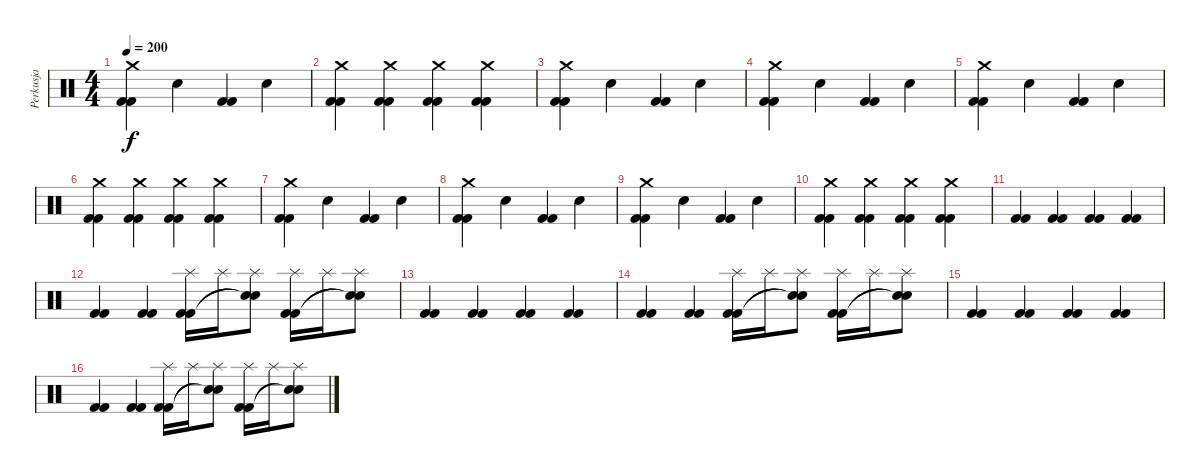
\track ("Perkusja" "Perkusja") {instrument percussion}
\staff {score}
\articulation defaults
\ts (4 4)
\tempo 200
\clef neutral
\ks c
("Crash medium (hit)" "Kick (hit) 2" "Kick (hit) 2").4{dy f} "Snare (hit) 2".4 ("Kick (hit) 2" "Kick (hit) 2").4 "Snare (hit) 2".4 |
("Crash medium (hit)" "Kick (hit) 2" "Kick (hit) 2").4 ("Crash medium (hit)" "Kick (hit) 2" "Kick (hit) 2").4 ("Crash medium (hit)" "Kick (hit) 2" "Kick (hit) 2").4 ("Crash medium (hit)" "Kick (hit) 2" "Kick (hit) 2").4 |
("Crash medium (hit)" "Kick (hit) 2" "Kick (hit) 2").4 "Snare (hit) 2".4 ("Kick (hit) 2" "Kick (hit) 2").4 "Snare (hit) 2".4 |
("Crash medium (hit)" "Kick (hit) 2" "Kick (hit) 2").4 "Snare (hit) 2".4 ("Kick (hit) 2" "Kick (hit) 2").4 "Snare (hit) 2".4 |
("Crash medium (hit)" "Kick (hit) 2" "Kick (hit) 2").4 "Snare (hit) 2".4 ("Kick (hit) 2" "Kick (hit) 2").4 "Snare (hit) 2".4 |
("Crash medium (hit)" "Kick (hit) 2" "Kick (hit) 2").4 ("Crash medium (hit)" "Kick (hit) 2" "Kick (hit) 2").4 ("Crash medium (hit)" "Kick (hit) 2" "Kick (hit) 2").4 ("Crash medium (hit)" "Kick (hit) 2" "Kick (hit) 2").4 |
("Crash medium (hit)" "Kick (hit) 2" "Kick (hit) 2").4 "Snare (hit) 2".4 ("Kick (hit) 2" "Kick (hit) 2").4 "Snare (hit) 2".4 |
("Crash medium (hit)" "Kick (hit) 2" "Kick (hit) 2").4 "Snare (hit) 2".4 ("Kick (hit) 2" "Kick (hit) 2").4 "Snare (hit) 2".4 |
("Crash medium (hit)" "Kick (hit) 2" "Kick (hit) 2").4 "Snare (hit) 2".4 ("Kick (hit) 2" "Kick (hit) 2").4 "Snare (hit) 2".4 |
("Crash medium (hit)" "Kick (hit) 2" "Kick (hit) 2").4 ("Crash medium (hit)" "Kick (hit) 2" "Kick (hit) 2").4 ("Crash medium (hit)" "Kick (hit) 2" "Kick (hit) 2").4 ("Crash medium (hit)" "Kick (hit) 2" "Kick (hit) 2").4 |
("Kick (hit) 2" "Kick (hit) 2").4 ("Kick (hit) 2" "Kick (hit) 2").4 ("Kick (hit) 2" "Kick (hit) 2").4 ("Kick (hit) 2" "Kick (hit) 2").4 |
("Kick (hit) 2" "Kick (hit) 2").4 ("Kick (hit) 2" "Kick (hit) 2").4 ("Splash (hit)" "Kick (hit) 2" "Kick (hit) 2").16 "Splash (hit)".16 ("Splash (hit)" "Snare (hit)"{t} "Snare (hit)"{t}).8 ("Splash (hit)" "Kick (hit) 2" "Kick (hit) 2").16 "Splash (hit)".16 ("Splash (hit)" "Snare (hit)"{t} "Snare (hit)"{t}).8 |
("Kick (hit) 2" "Kick (hit) 2").4 ("Kick (hit) 2" "Kick (hit) 2").4 ("Kick (hit) 2" "Kick (hit) 2").4 ("Kick (hit) 2" "Kick (hit) 2").4 |
("Kick (hit) 2" "Kick (hit) 2").4 ("Kick (hit) 2" "Kick (hit) 2").4 ("Splash (hit)" "Kick (hit) 2" "Kick (hit) 2").16 "Splash (hit)".16 ("Splash (hit)" "Snare (hit)"{t} "Snare (hit)"{t}).8 ("Splash (hit)" "Kick (hit) 2" "Kick (hit) 2").16 "Splash (hit)".16 ("Splash (hit)" "Snare (hit)"{t} "Snare (hit)"{t}).8 |
("Kick (hit) 2" "Kick (hit) 2").4 ("Kick (hit) 2" "Kick (hit) 2").4 ("Kick (hit) 2" "Kick (hit) 2").4 ("Kick (hit) 2" "Kick (hit) 2").4 |
("Kick (hit) 2" "Kick (hit) 2").4 ("Kick (hit) 2" "Kick (hit) 2").4 ("Splash (hit)" "Kick (hit) 2" "Kick (hit) 2").16 "Splash (hit)".16 ("Splash (hit)" "Snare (hit)"{t} "Snare (hit)"{t}).8 ("Splash (hit)" "Kick (hit) 2" "Kick (hit) 2").16 "Splash (hit)".16 ("Splash (hit)" "Snare (hit)"{t} "Snare (hit)"{t}).8
